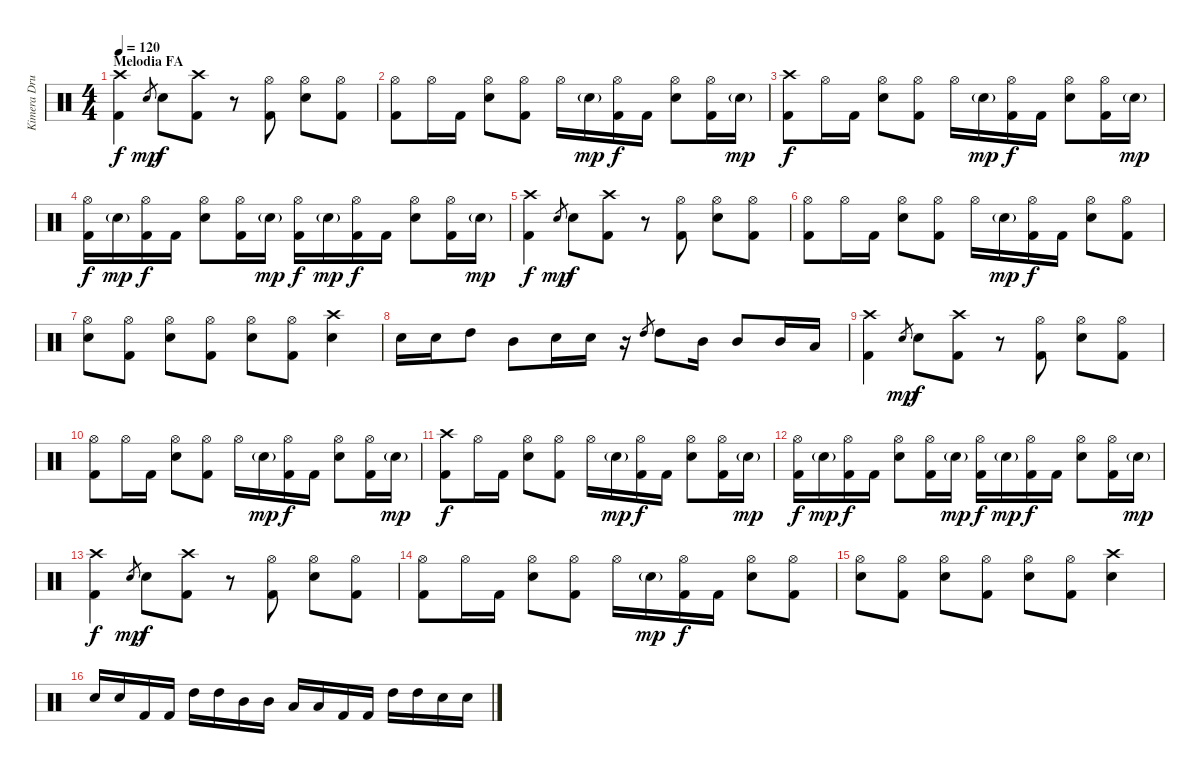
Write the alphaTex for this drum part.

\track ("Kimera Drummer" "Kimera Dru") {instrument percussion}
\staff {score}
\articulation defaults
\ts (4 4)
\section ("" "Melodia FA")
\tempo 120
\clef neutral
\ks c
("Crash high (hit)" "Kick (hit) 2").4{dy f} "Electric Snare (hit)".8{gr dy mp} "Electric Snare (hit)".8{dy f} ("Crash high (hit)" "Kick (hit) 2").8 r.8 ("Hi-Hat (open)" "Kick (hit) 2").8 ("Hi-Hat (open)" "Electric Snare (hit)").8 ("Hi-Hat (open)" "Kick (hit) 2").8 |
("Hi-Hat (open)" "Kick (hit) 2").8 "Hi-Hat (open)".16 "Kick (hit) 2".16 ("Hi-Hat (open)" "Electric Snare (hit)").8 ("Hi-Hat (open)" "Kick (hit) 2").8 "Hi-Hat (open)".16 "Electric Snare (hit)"{g}.16{dy mp} ("Hi-Hat (open)" "Kick (hit) 2").16{dy f} "Kick (hit) 2".16 ("Hi-Hat (open)" "Electric Snare (hit)").8 ("Hi-Hat (open)" "Kick (hit) 2").16 "Electric Snare (hit)"{g}.16{dy mp} |
("Crash high (hit)" "Kick (hit) 2").8{dy f} "Hi-Hat (open)".16 "Kick (hit) 2".16 ("Hi-Hat (open)" "Electric Snare (hit)").8 ("Hi-Hat (open)" "Kick (hit) 2").8 "Hi-Hat (open)".16 "Electric Snare (hit)"{g}.16{dy mp} ("Hi-Hat (open)" "Kick (hit) 2").16{dy f} "Kick (hit) 2".16 ("Hi-Hat (open)" "Electric Snare (hit)").8 ("Hi-Hat (open)" "Kick (hit) 2").16 "Electric Snare (hit)"{g}.16{dy mp} |
("Hi-Hat (open)" "Kick (hit) 2").16{dy f} "Electric Snare (hit)"{g}.16{dy mp} ("Hi-Hat (open)" "Kick (hit) 2").16{dy f} "Kick (hit) 2".16 ("Hi-Hat (open)" "Electric Snare (hit)").8 ("Hi-Hat (open)" "Kick (hit) 2").16 "Electric Snare (hit)"{g}.16{dy mp} ("Hi-Hat (open)" "Kick (hit) 2").16{dy f} "Electric Snare (hit)"{g}.16{dy mp} ("Hi-Hat (open)" "Kick (hit) 2").16{dy f} "Kick (hit) 2".16 ("Hi-Hat (open)" "Electric Snare (hit)").8 ("Hi-Hat (open)" "Kick (hit) 2").16 "Electric Snare (hit)"{g}.16{dy mp} |
("Crash high (hit)" "Kick (hit) 2").4{dy f} "Electric Snare (hit)".8{gr dy mp} "Electric Snare (hit)".8{dy f} ("Crash high (hit)" "Kick (hit) 2").8 r.8 ("Hi-Hat (open)" "Kick (hit) 2").8 ("Hi-Hat (open)" "Electric Snare (hit)").8 ("Hi-Hat (open)" "Kick (hit) 2").8 |
("Hi-Hat (open)" "Kick (hit) 2").8 "Hi-Hat (open)".16 "Kick (hit) 2".16 ("Hi-Hat (open)" "Electric Snare (hit)").8 ("Hi-Hat (open)" "Kick (hit) 2").8 "Hi-Hat (open)".16 "Electric Snare (hit)"{g}.16{dy mp} ("Hi-Hat (open)" "Kick (hit) 2").16{dy f} "Kick (hit) 2".16 ("Hi-Hat (open)" "Electric Snare (hit)").8 ("Hi-Hat (open)" "Kick (hit) 2").8 |
("Hi-Hat (open)" "Electric Snare (hit)").8 ("Hi-Hat (open)" "Kick (hit) 2").8 ("Hi-Hat (open)" "Electric Snare (hit)").8 ("Hi-Hat (open)" "Kick (hit) 2").8 ("Hi-Hat (open)" "Electric Snare (hit)").8 ("Hi-Hat (open)" "Kick (hit) 2").8 ("Crash high (hit)" "Electric Snare (hit)").4 |
"Electric Snare (hit)".16 "Electric Snare (hit)".16 "High Tom (hit)".8 "Mid Tom (hit)".8 "Electric Snare (hit)".16 "Electric Snare (hit)".16 r.16 "High Tom (hit)".8{gr} "High Tom (hit)".8 "Mid Tom (hit)".16 "Mid Tom (hit)".8 "Mid Tom (hit)".16 "Low Tom (hit)".16 |
("Crash high (hit)" "Kick (hit) 2").4 "Electric Snare (hit)".8{gr dy mp} "Electric Snare (hit)".8{dy f} ("Crash high (hit)" "Kick (hit) 2").8 r.8 ("Hi-Hat (open)" "Kick (hit) 2").8 ("Hi-Hat (open)" "Electric Snare (hit)").8 ("Hi-Hat (open)" "Kick (hit) 2").8 |
("Hi-Hat (open)" "Kick (hit) 2").8 "Hi-Hat (open)".16 "Kick (hit) 2".16 ("Hi-Hat (open)" "Electric Snare (hit)").8 ("Hi-Hat (open)" "Kick (hit) 2").8 "Hi-Hat (open)".16 "Electric Snare (hit)"{g}.16{dy mp} ("Hi-Hat (open)" "Kick (hit) 2").16{dy f} "Kick (hit) 2".16 ("Hi-Hat (open)" "Electric Snare (hit)").8 ("Hi-Hat (open)" "Kick (hit) 2").16 "Electric Snare (hit)"{g}.16{dy mp} |
("Crash high (hit)" "Kick (hit) 2").8{dy f} "Hi-Hat (open)".16 "Kick (hit) 2".16 ("Hi-Hat (open)" "Electric Snare (hit)").8 ("Hi-Hat (open)" "Kick (hit) 2").8 "Hi-Hat (open)".16 "Electric Snare (hit)"{g}.16{dy mp} ("Hi-Hat (open)" "Kick (hit) 2").16{dy f} "Kick (hit) 2".16 ("Hi-Hat (open)" "Electric Snare (hit)").8 ("Hi-Hat (open)" "Kick (hit) 2").16 "Electric Snare (hit)"{g}.16{dy mp} |
("Hi-Hat (open)" "Kick (hit) 2").16{dy f} "Electric Snare (hit)"{g}.16{dy mp} ("Hi-Hat (open)" "Kick (hit) 2").16{dy f} "Kick (hit) 2".16 ("Hi-Hat (open)" "Electric Snare (hit)").8 ("Hi-Hat (open)" "Kick (hit) 2").16 "Electric Snare (hit)"{g}.16{dy mp} ("Hi-Hat (open)" "Kick (hit) 2").16{dy f} "Electric Snare (hit)"{g}.16{dy mp} ("Hi-Hat (open)" "Kick (hit) 2").16{dy f} "Kick (hit) 2".16 ("Hi-Hat (open)" "Electric Snare (hit)").8 ("Hi-Hat (open)" "Kick (hit) 2").16 "Electric Snare (hit)"{g}.16{dy mp} |
("Crash high (hit)" "Kick (hit) 2").4{dy f} "Electric Snare (hit)".8{gr dy mp} "Electric Snare (hit)".8{dy f} ("Crash high (hit)" "Kick (hit) 2").8 r.8 ("Hi-Hat (open)" "Kick (hit) 2").8 ("Hi-Hat (open)" "Electric Snare (hit)").8 ("Hi-Hat (open)" "Kick (hit) 2").8 |
("Hi-Hat (open)" "Kick (hit) 2").8 "Hi-Hat (open)".16 "Kick (hit) 2".16 ("Hi-Hat (open)" "Electric Snare (hit)").8 ("Hi-Hat (open)" "Kick (hit) 2").8 "Hi-Hat (open)".16 "Electric Snare (hit)"{g}.16{dy mp} ("Hi-Hat (open)" "Kick (hit) 2").16{dy f} "Kick (hit) 2".16 ("Hi-Hat (open)" "Electric Snare (hit)").8 ("Hi-Hat (open)" "Kick (hit) 2").8 |
("Hi-Hat (open)" "Electric Snare (hit)").8 ("Hi-Hat (open)" "Kick (hit) 2").8 ("Hi-Hat (open)" "Electric Snare (hit)").8 ("Hi-Hat (open)" "Kick (hit) 2").8 ("Hi-Hat (open)" "Electric Snare (hit)").8 ("Hi-Hat (open)" "Kick (hit) 2").8 ("Crash high (hit)" "Electric Snare (hit)").4 |
"Electric Snare (hit)".16 "Electric Snare (hit)".16 "Kick (hit) 2".16 "Kick (hit) 2".16 "High Tom (hit)".16 "High Tom (hit)".16 "Mid Tom (hit)".16 "Mid Tom (hit)".16 "Low Tom (hit)".16 "Low Tom (hit)".16 "Kick (hit) 2".16 "Kick (hit) 2".16 "High Tom (hit)".16 "High Tom (hit)".16 "Electric Snare (hit)".16 "Electric Snare (hit)".16
